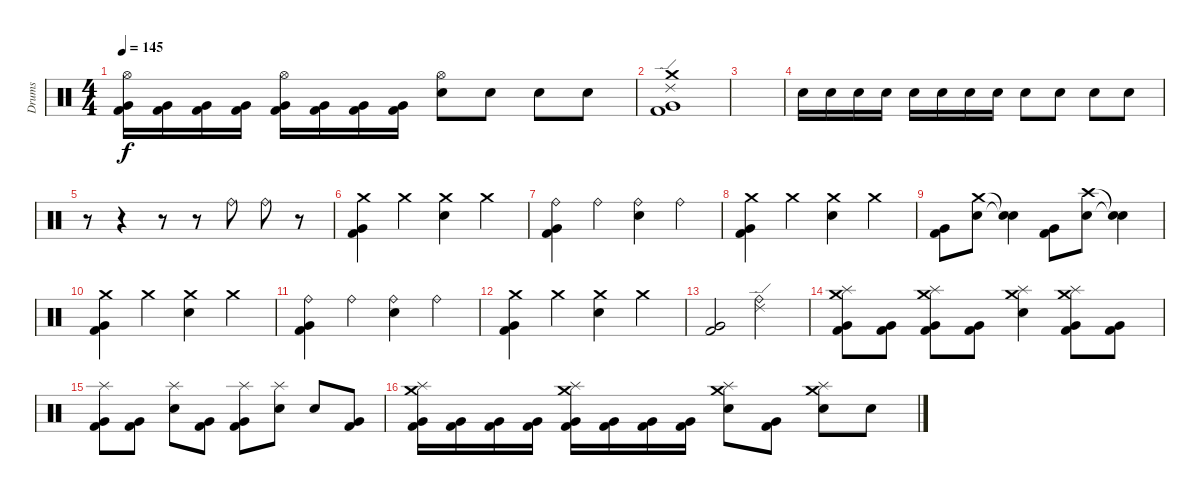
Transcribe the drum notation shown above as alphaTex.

\track ("Drums" "Drums") {instrument percussion}
\staff {score}
\articulation defaults
\ts (4 4)
\tempo 145
\clef neutral
\ks c
("Hi-Hat (open)" "Very Low Tom (hit)" "Kick (hit) 2").16{dy f} ("Very Low Tom (hit)" "Kick (hit) 2").16 ("Very Low Tom (hit)" "Kick (hit) 2").16 ("Very Low Tom (hit)" "Kick (hit) 2").16 ("Hi-Hat (open)" "Very Low Tom (hit)" "Kick (hit) 2").16 ("Very Low Tom (hit)" "Kick (hit) 2").16 ("Very Low Tom (hit)" "Kick (hit) 2").16 ("Very Low Tom (hit)" "Kick (hit) 2").16 ("Hi-Hat (open)" "Snare (hit) 2").8 "Snare (hit) 2".8 "Snare (hit) 2".8 "Snare (hit) 2".8 |
("Ride (edge) 2" "Crash medium (hit)" "Very Low Tom (hit)" "Kick (hit) 2").1 |
|
"Snare (hit) 2".16 "Snare (hit) 2".16 "Snare (hit) 2".16 "Snare (hit) 2".16 "Snare (hit) 2".16 "Snare (hit) 2".16 "Snare (hit) 2".16 "Snare (hit) 2".16 "Snare (hit) 2".8 "Snare (hit) 2".8 "Snare (hit) 2".8 "Snare (hit) 2".8 |
r.8 r.4 r.8 r.8 "Ride (bell)".8 "Ride (bell)".8 r.8 |
("Crash medium (hit)" "Very Low Tom (hit)" "Kick (hit) 2").4 "Crash medium (hit)".4 ("Crash medium (hit)" "Snare (hit) 2").4 "Crash medium (hit)".4 |
("Ride (bell)" "Very Low Tom (hit)" "Kick (hit) 2").4 "Ride (bell)".4 ("Ride (bell)" "Snare (hit) 2").4 "Ride (bell)".4 |
("Crash medium (hit)" "Very Low Tom (hit)" "Kick (hit) 2").4 "Crash medium (hit)".4 ("Crash medium (hit)" "Snare (hit) 2").4 "Crash medium (hit)".4 |
("Very Low Tom (hit)" "Kick (hit) 2").8 ("Crash medium (hit)" "Snare (hit) 2").8 ("Snare (hit)"{t} "Snare (hit)"{t}).4 ("Very Low Tom (hit)" "Kick (hit) 2").8 ("Crash high (hit)" "Snare (hit) 2").8 ("Snare (hit)"{t} "Snare (hit)"{t}).4 |
("Crash medium (hit)" "Very Low Tom (hit)" "Kick (hit) 2").4 "Crash medium (hit)".4 ("Crash medium (hit)" "Snare (hit) 2").4 "Crash medium (hit)".4 |
("Ride (bell)" "Very Low Tom (hit)" "Kick (hit) 2").4 "Ride (bell)".4 ("Ride (bell)" "Snare (hit) 2").4 "Ride (bell)".4 |
("Crash medium (hit)" "Very Low Tom (hit)" "Kick (hit) 2").4 "Crash medium (hit)".4 ("Crash medium (hit)" "Snare (hit) 2").4 "Crash medium (hit)".4 |
("Very Low Tom (hit)" "Kick (hit) 2").2 ("Ride (bell)" "Ride (edge) 2").2 |
("Splash (hit)" "Crash medium (hit)" "Very Low Tom (hit)" "Kick (hit) 2").8 ("Very Low Tom (hit)" "Kick (hit) 2").8 ("Splash (hit)" "Crash medium (hit)" "Very Low Tom (hit)" "Kick (hit) 2").8 ("Very Low Tom (hit)" "Kick (hit) 2").8 ("Splash (hit)" "Crash medium (hit)" "Snare (hit) 2").4 ("Splash (hit)" "Crash medium (hit)" "Very Low Tom (hit)" "Kick (hit) 2").8 ("Very Low Tom (hit)" "Kick (hit) 2").8 |
("Splash (hit)" "Very Low Tom (hit)" "Kick (hit) 2").8 ("Very Low Tom (hit)" "Kick (hit) 2").8 ("Splash (hit)" "Snare (hit) 2").8 ("Very Low Tom (hit)" "Kick (hit) 2").8 ("Splash (hit)" "Very Low Tom (hit)" "Kick (hit) 2").8 ("Splash (hit)" "Snare (hit) 2").8 "Snare (hit) 2".8 ("Very Low Tom (hit)" "Kick (hit) 2").8 |
("Splash (hit)" "Crash medium (hit)" "Very Low Tom (hit)" "Kick (hit) 2").16 ("Very Low Tom (hit)" "Kick (hit) 2").16 ("Very Low Tom (hit)" "Kick (hit) 2").16 ("Very Low Tom (hit)" "Kick (hit) 2").16 ("Splash (hit)" "Crash medium (hit)" "Very Low Tom (hit)" "Kick (hit) 2").16 ("Very Low Tom (hit)" "Kick (hit) 2").16 ("Very Low Tom (hit)" "Kick (hit) 2").16 ("Very Low Tom (hit)" "Kick (hit) 2").16 ("Splash (hit)" "Crash medium (hit)" "Snare (hit) 2").8 ("Very Low Tom (hit)" "Kick (hit) 2").8 ("Splash (hit)" "Crash medium (hit)" "Snare (hit) 2").8 "Snare (hit) 2".8
